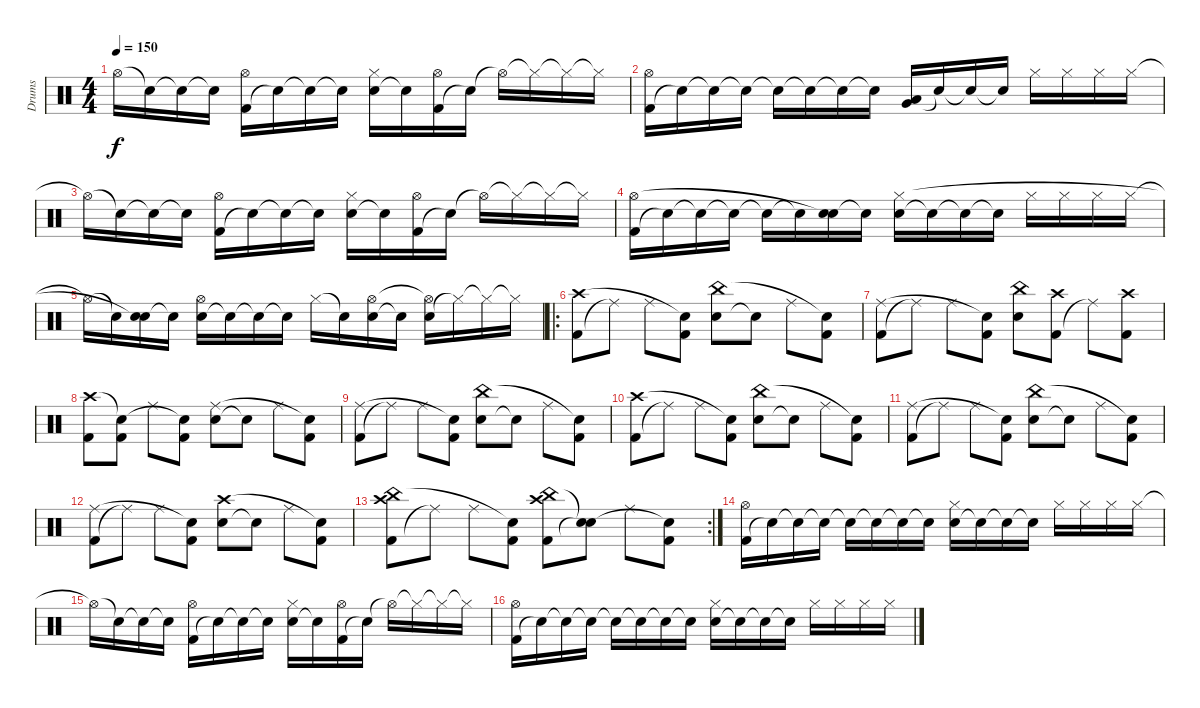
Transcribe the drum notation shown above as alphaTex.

\track ("Drums" "Drums") {instrument percussion}
\staff {score}
\articulation defaults
\ts (4 4)
\tempo 150
\clef neutral
\ks c "Hi-Hat (open)"{t}.16{dy f} "Snare (hit)"{t}.16 "Snare (hit)"{t}.16 "Snare (hit)"{t}.16
("Kick (hit) 2" "Hi-Hat (open)").16 "Snare (hit)"{t}.16 "Snare (hit)"{t}.16 "Snare (hit)"{t}.16 ("Electric Snare (hit)" "Hi-Hat (closed)").16 "Snare (hit)"{t}.16 ("Kick (hit) 2" "Hi-Hat (open)").16 "Snare (hit)"{t}.16 "Hi-Hat (open)"{t}.16 "Hi-Hat (closed)"{t}.16 "Hi-Hat (closed)"{t}.16 "Hi-Hat (closed)"{t}.16 |
("Kick (hit) 2" "Hi-Hat (open)").16 "Snare (hit)"{t}.16 "Snare (hit)"{t}.16 "Snare (hit)"{t}.16 "Snare (hit)"{t}.16 "Snare (hit)"{t}.16 "Snare (hit)"{t}.16 "Snare (hit)"{t}.16 ("Very Low Tom (hit)" "Low Floor Tom (hit)").16 "Snare (hit)"{t}.16 "Snare (hit)"{t}.16 "Snare (hit)"{t}.16 "Hi-Hat (closed)".16 "Hi-Hat (closed)".16 "Hi-Hat (closed)".16 "Hi-Hat (closed)".16 |
"Hi-Hat (open)"{t}.16 "Snare (hit)"{t}.16 "Snare (hit)"{t}.16 "Snare (hit)"{t}.16 ("Kick (hit) 2" "Hi-Hat (open)").16 "Snare (hit)"{t}.16 "Snare (hit)"{t}.16 "Snare (hit)"{t}.16 ("Electric Snare (hit)" "Hi-Hat (closed)").16 "Snare (hit)"{t}.16 ("Kick (hit) 2" "Hi-Hat (open)").16 "Snare (hit)"{t}.16 "Hi-Hat (open)"{t}.16 "Hi-Hat (closed)"{t}.16 "Hi-Hat (closed)"{t}.16 "Hi-Hat (closed)"{t}.16 |
("Kick (hit) 2" "Hi-Hat (open)").16 "Snare (hit)"{t}.16 "Snare (hit)"{t}.16 "Snare (hit)"{t}.16 "Snare (hit)"{t}.16 "Snare (hit)"{t}.16 ("Electric Snare (hit)" "Snare (hit)"{t}).16 "Snare (hit)"{t}.16 ("Electric Snare (hit)" "Hi-Hat (closed)").16 "Snare (hit)"{t}.16 "Snare (hit)"{t}.16 "Snare (hit)"{t}.16 "Hi-Hat (closed)".16 "Hi-Hat (closed)".16 "Hi-Hat (closed)".16 "Hi-Hat (closed)".16 |
"Hi-Hat (open)"{t}.16 "Snare (hit)"{t}.16 ("Electric Snare (hit)" "Snare (hit)"{t}).16 "Snare (hit)"{t}.16 ("Electric Snare (hit)" "Hi-Hat (open)").16 "Snare (hit)"{t}.16 "Snare (hit)"{t}.16 "Snare (hit)"{t}.16 "Hi-Hat (closed)".16 "Snare (hit)"{t}.16 ("Electric Snare (hit)" "Hi-Hat (open)").16 "Snare (hit)"{t}.16 ("Electric Snare (hit)" "Hi-Hat (open)"{t}).16 "Hi-Hat (closed)"{t}.16 "Hi-Hat (closed)"{t}.16 "Hi-Hat (closed)"{t}.16 |
\ro
("Kick (hit) 2" "Crash high (hit)").8 "Ride (middle)"{t}.8 "Ride (middle)".8 ("Kick (hit) 2" "Snare (hit)"{t}).8 ("Electric Snare (hit)" "China (hit)").8 "Snare (hit)"{t}.8 "Ride (middle)".8 ("Kick (hit) 2" "Snare (hit)"{t}).8 |
("Kick (hit) 2" "Ride (middle)").8 "Ride (middle)"{t}.8 "Ride (middle)".8 ("Kick (hit) 2" "Snare (hit)"{t}).8 ("Electric Snare (hit)" "China (hit)").8 ("Kick (hit) 2" "Crash high (hit)").8 "Ride (middle)"{t}.8 ("Kick (hit) 2" "Crash high (hit)").8 |
("Kick (hit) 2" "Crash high (hit)").8 ("Kick (hit) 2" "Snare (hit)"{t}).8 "Ride (middle)".8 ("Kick (hit) 2" "Snare (hit)"{t}).8 ("Electric Snare (hit)" "Ride (middle)").8 "Snare (hit)"{t}.8 "Ride (middle)".8 ("Kick (hit) 2" "Snare (hit)"{t}).8 |
("Kick (hit) 2" "Ride (middle)").8 "Ride (middle)"{t}.8 "Ride (middle)".8 ("Kick (hit) 2" "Snare (hit)"{t}).8 ("Electric Snare (hit)" "China (hit)").8 "Snare (hit)"{t}.8 "Ride (middle)".8 ("Kick (hit) 2" "Snare (hit)"{t}).8 |
("Kick (hit) 2" "Crash high (hit)").8 "Ride (middle)"{t}.8 "Ride (middle)".8 ("Kick (hit) 2" "Snare (hit)"{t}).8 ("Electric Snare (hit)" "China (hit)").8 "Snare (hit)"{t}.8 "Ride (middle)".8 ("Kick (hit) 2" "Snare (hit)"{t}).8 |
("Kick (hit) 2" "Ride (middle)").8 "Ride (middle)"{t}.8 "Ride (middle)".8 ("Kick (hit) 2" "Snare (hit)"{t}).8 ("Electric Snare (hit)" "China (hit)").8 "Snare (hit)"{t}.8 "Ride (middle)".8 ("Kick (hit) 2" "Snare (hit)"{t}).8 |
("Kick (hit) 2" "Ride (middle)").8 "Ride (middle)"{t}.8 "Ride (middle)".8 ("Kick (hit) 2" "Snare (hit)"{t}).8 ("Electric Snare (hit)" "Crash high (hit)").8 "Snare (hit)"{t}.8 "Ride (middle)".8 ("Kick (hit) 2" "Snare (hit)"{t}).8 |
\rc 2
("Kick (hit) 2" "China (hit)" "Crash high (hit)").8 "Ride (middle)"{t}.8 "Ride (middle)".8 ("Kick (hit) 2" "Snare (hit)"{t}).8 ("Kick (hit) 2" "China (hit)" "Crash high (hit)").8 ("Snare (hit)"{t} "Snare (hit)"{t}).8 "Ride (middle)".8 ("Kick (hit) 2" "Snare (hit)"{t}).8 |
("Kick (hit) 2" "Hi-Hat (open)").16 "Snare (hit)"{t}.16 "Snare (hit)"{t}.16 "Snare (hit)"{t}.16 "Snare (hit)"{t}.16 "Snare (hit)"{t}.16 "Snare (hit)"{t}.16 "Snare (hit)"{t}.16 ("Electric Snare (hit)" "Hi-Hat (closed)").16 "Snare (hit)"{t}.16 "Snare (hit)"{t}.16 "Snare (hit)"{t}.16 "Hi-Hat (closed)".16 "Hi-Hat (closed)".16 "Hi-Hat (closed)".16 "Hi-Hat (closed)".16 |
"Hi-Hat (open)"{t}.16 "Snare (hit)"{t}.16 "Snare (hit)"{t}.16 "Snare (hit)"{t}.16 ("Kick (hit) 2" "Hi-Hat (open)").16 "Snare (hit)"{t}.16 "Snare (hit)"{t}.16 "Snare (hit)"{t}.16 ("Electric Snare (hit)" "Hi-Hat (closed)").16 "Snare (hit)"{t}.16 ("Kick (hit) 2" "Hi-Hat (open)").16 "Snare (hit)"{t}.16 "Hi-Hat (open)"{t}.16 "Hi-Hat (closed)"{t}.16 "Hi-Hat (closed)"{t}.16 "Hi-Hat (closed)"{t}.16 |
("Kick (hit) 2" "Hi-Hat (open)").16 "Snare (hit)"{t}.16 "Snare (hit)"{t}.16 "Snare (hit)"{t}.16 "Snare (hit)"{t}.16 "Snare (hit)"{t}.16 "Snare (hit)"{t}.16 "Snare (hit)"{t}.16 ("Electric Snare (hit)" "Hi-Hat (closed)").16 "Snare (hit)"{t}.16 "Snare (hit)"{t}.16 "Snare (hit)"{t}.16 "Hi-Hat (closed)".16 "Hi-Hat (closed)".16 "Hi-Hat (closed)".16 "Hi-Hat (closed)".16
